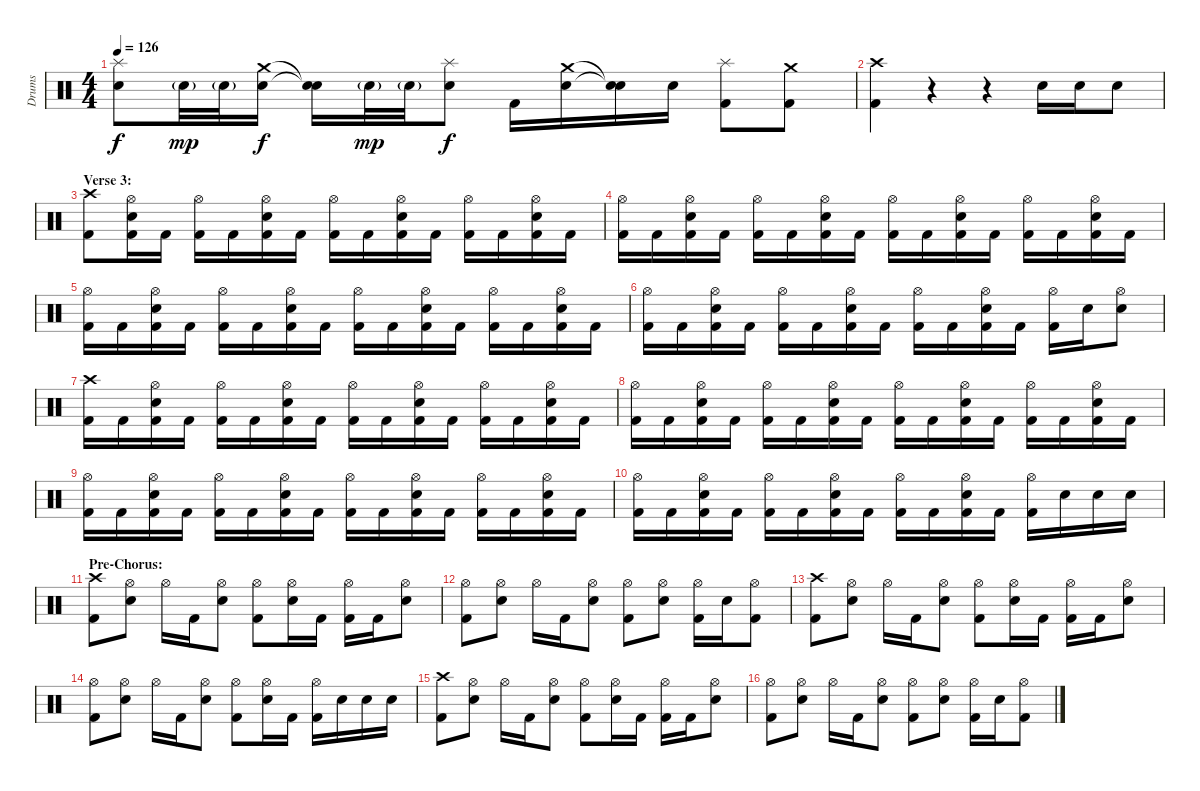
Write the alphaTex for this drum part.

\track ("Drums" "Drums") {instrument percussion}
\staff {score}
\articulation defaults
\ts (4 4)
\tempo 126
\clef neutral
\ks c
("Splash (hit)" "Snare (hit) 2").8{dy f} "Snare (hit) 2"{g}.32{dy mp} "Snare (hit) 2"{g}.32 ("Crash medium (hit)" "Snare (hit) 2").16{dy f} ("Snare (hit)"{t} "Snare (hit) 2"{t}).16 "Snare (hit) 2"{g}.32{dy mp} "Snare (hit) 2"{g}.32 ("Splash (hit)" "Snare (hit) 2").8{dy f} "Kick (hit) 2".16 ("Crash medium (hit)" "Snare (hit) 2").16 ("Snare (hit)"{t} "Snare (hit)"{t}).16 "Snare (hit) 2".16 ("Splash (hit)" "Kick (hit) 2").8 ("Crash medium (hit)" "Kick (hit) 2").8 |
("Crash high (hit)" "Kick (hit) 2").4 r.4 r.4 "Snare (hit) 2".16 "Snare (hit) 2".16 "Snare (hit) 2".8 |
\section ("" "Verse 3:")
("Crash high (hit)" "Kick (hit) 2").8 ("Hi-Hat (open)" "Snare (hit) 2" "Kick (hit) 2").16 "Kick (hit) 2".16 ("Hi-Hat (open)" "Kick (hit) 2").16 "Kick (hit) 2".16 ("Hi-Hat (open)" "Snare (hit) 2" "Kick (hit) 2").16 "Kick (hit) 2".16 ("Hi-Hat (open)" "Kick (hit) 2").16 "Kick (hit) 2".16 ("Hi-Hat (open)" "Snare (hit) 2" "Kick (hit) 2").16 "Kick (hit) 2".16 ("Hi-Hat (open)" "Kick (hit) 2").16 "Kick (hit) 2".16 ("Hi-Hat (open)" "Snare (hit) 2" "Kick (hit) 2").16 "Kick (hit) 2".16 |
("Hi-Hat (open)" "Kick (hit) 2").16 "Kick (hit) 2".16 ("Hi-Hat (open)" "Snare (hit) 2" "Kick (hit) 2").16 "Kick (hit) 2".16 ("Hi-Hat (open)" "Kick (hit) 2").16 "Kick (hit) 2".16 ("Hi-Hat (open)" "Snare (hit) 2" "Kick (hit) 2").16 "Kick (hit) 2".16 ("Hi-Hat (open)" "Kick (hit) 2").16 "Kick (hit) 2".16 ("Hi-Hat (open)" "Snare (hit) 2" "Kick (hit) 2").16 "Kick (hit) 2".16 ("Hi-Hat (open)" "Kick (hit) 2").16 "Kick (hit) 2".16 ("Hi-Hat (open)" "Snare (hit) 2" "Kick (hit) 2").16 "Kick (hit) 2".16 |
("Hi-Hat (open)" "Kick (hit) 2").16 "Kick (hit) 2".16 ("Hi-Hat (open)" "Snare (hit) 2" "Kick (hit) 2").16 "Kick (hit) 2".16 ("Hi-Hat (open)" "Kick (hit) 2").16 "Kick (hit) 2".16 ("Hi-Hat (open)" "Snare (hit) 2" "Kick (hit) 2").16 "Kick (hit) 2".16 ("Hi-Hat (open)" "Kick (hit) 2").16 "Kick (hit) 2".16 ("Hi-Hat (open)" "Snare (hit) 2" "Kick (hit) 2").16 "Kick (hit) 2".16 ("Hi-Hat (open)" "Kick (hit) 2").16 "Kick (hit) 2".16 ("Hi-Hat (open)" "Snare (hit) 2" "Kick (hit) 2").16 "Kick (hit) 2".16 |
("Hi-Hat (open)" "Kick (hit) 2").16 "Kick (hit) 2".16 ("Hi-Hat (open)" "Snare (hit) 2" "Kick (hit) 2").16 "Kick (hit) 2".16 ("Hi-Hat (open)" "Kick (hit) 2").16 "Kick (hit) 2".16 ("Hi-Hat (open)" "Snare (hit) 2" "Kick (hit) 2").16 "Kick (hit) 2".16 ("Hi-Hat (open)" "Kick (hit) 2").16 "Kick (hit) 2".16 ("Hi-Hat (open)" "Snare (hit) 2" "Kick (hit) 2").16 "Kick (hit) 2".16 ("Hi-Hat (open)" "Kick (hit) 2").16 "Snare (hit) 2".16 ("Hi-Hat (open)" "Snare (hit) 2").8 |
("Crash high (hit)" "Kick (hit) 2").16 "Kick (hit) 2".16 ("Hi-Hat (open)" "Snare (hit) 2" "Kick (hit) 2").16 "Kick (hit) 2".16 ("Hi-Hat (open)" "Kick (hit) 2").16 "Kick (hit) 2".16 ("Hi-Hat (open)" "Snare (hit) 2" "Kick (hit) 2").16 "Kick (hit) 2".16 ("Hi-Hat (open)" "Kick (hit) 2").16 "Kick (hit) 2".16 ("Hi-Hat (open)" "Snare (hit) 2" "Kick (hit) 2").16 "Kick (hit) 2".16 ("Hi-Hat (open)" "Kick (hit) 2").16 "Kick (hit) 2".16 ("Hi-Hat (open)" "Snare (hit) 2" "Kick (hit) 2").16 "Kick (hit) 2".16 |
("Hi-Hat (open)" "Kick (hit) 2").16 "Kick (hit) 2".16 ("Hi-Hat (open)" "Snare (hit) 2" "Kick (hit) 2").16 "Kick (hit) 2".16 ("Hi-Hat (open)" "Kick (hit) 2").16 "Kick (hit) 2".16 ("Hi-Hat (open)" "Snare (hit) 2" "Kick (hit) 2").16 "Kick (hit) 2".16 ("Hi-Hat (open)" "Kick (hit) 2").16 "Kick (hit) 2".16 ("Hi-Hat (open)" "Snare (hit) 2" "Kick (hit) 2").16 "Kick (hit) 2".16 ("Hi-Hat (open)" "Kick (hit) 2").16 "Kick (hit) 2".16 ("Hi-Hat (open)" "Snare (hit) 2" "Kick (hit) 2").16 "Kick (hit) 2".16 |
("Hi-Hat (open)" "Kick (hit) 2").16 "Kick (hit) 2".16 ("Hi-Hat (open)" "Snare (hit) 2" "Kick (hit) 2").16 "Kick (hit) 2".16 ("Hi-Hat (open)" "Kick (hit) 2").16 "Kick (hit) 2".16 ("Hi-Hat (open)" "Snare (hit) 2" "Kick (hit) 2").16 "Kick (hit) 2".16 ("Hi-Hat (open)" "Kick (hit) 2").16 "Kick (hit) 2".16 ("Hi-Hat (open)" "Snare (hit) 2" "Kick (hit) 2").16 "Kick (hit) 2".16 ("Hi-Hat (open)" "Kick (hit) 2").16 "Kick (hit) 2".16 ("Hi-Hat (open)" "Snare (hit) 2" "Kick (hit) 2").16 "Kick (hit) 2".16 |
("Hi-Hat (open)" "Kick (hit) 2").16 "Kick (hit) 2".16 ("Hi-Hat (open)" "Snare (hit) 2" "Kick (hit) 2").16 "Kick (hit) 2".16 ("Hi-Hat (open)" "Kick (hit) 2").16 "Kick (hit) 2".16 ("Hi-Hat (open)" "Snare (hit) 2" "Kick (hit) 2").16 "Kick (hit) 2".16 ("Hi-Hat (open)" "Kick (hit) 2").16 "Kick (hit) 2".16 ("Hi-Hat (open)" "Snare (hit) 2" "Kick (hit) 2").16 "Kick (hit) 2".16 ("Hi-Hat (open)" "Kick (hit) 2").16 "Snare (hit) 2".16 "Snare (hit) 2".16 "Snare (hit) 2".16 |
\section ("" "Pre-Chorus:")
("Crash high (hit)" "Kick (hit) 2").8 ("Hi-Hat (open)" "Snare (hit) 2").8 "Hi-Hat (open)".16 "Kick (hit) 2".16 ("Hi-Hat (open)" "Snare (hit) 2").8 ("Hi-Hat (open)" "Kick (hit) 2").8 ("Hi-Hat (open)" "Snare (hit) 2").16 "Kick (hit) 2".16 ("Hi-Hat (open)" "Kick (hit) 2").16 "Kick (hit) 2".16 ("Hi-Hat (open)" "Snare (hit) 2").8 |
("Hi-Hat (open)" "Kick (hit) 2").8 ("Hi-Hat (open)" "Snare (hit) 2").8 "Hi-Hat (open)".16 "Kick (hit) 2".16 ("Hi-Hat (open)" "Snare (hit) 2").8 ("Hi-Hat (open)" "Kick (hit) 2").8 ("Hi-Hat (open)" "Snare (hit) 2").8 ("Hi-Hat (open)" "Kick (hit) 2").16 "Snare (hit) 2".16 ("Hi-Hat (open)" "Kick (hit) 2").8 |
("Crash high (hit)" "Kick (hit) 2").8 ("Hi-Hat (open)" "Snare (hit) 2").8 "Hi-Hat (open)".16 "Kick (hit) 2".16 ("Hi-Hat (open)" "Snare (hit) 2").8 ("Hi-Hat (open)" "Kick (hit) 2").8 ("Hi-Hat (open)" "Snare (hit) 2").16 "Kick (hit) 2".16 ("Hi-Hat (open)" "Kick (hit) 2").16 "Kick (hit) 2".16 ("Hi-Hat (open)" "Snare (hit) 2").8 |
("Hi-Hat (open)" "Kick (hit) 2").8 ("Hi-Hat (open)" "Snare (hit) 2").8 "Hi-Hat (open)".16 "Kick (hit) 2".16 ("Hi-Hat (open)" "Snare (hit) 2").8 ("Hi-Hat (open)" "Kick (hit) 2").8 ("Hi-Hat (open)" "Snare (hit) 2").16 "Kick (hit) 2".16 ("Hi-Hat (open)" "Kick (hit) 2").16 "Snare (hit) 2".16 "Snare (hit) 2".16 "Snare (hit) 2".16 |
("Crash high (hit)" "Kick (hit) 2").8 ("Hi-Hat (open)" "Snare (hit) 2").8 "Hi-Hat (open)".16 "Kick (hit) 2".16 ("Hi-Hat (open)" "Snare (hit) 2").8 ("Hi-Hat (open)" "Kick (hit) 2").8 ("Hi-Hat (open)" "Snare (hit) 2").16 "Kick (hit) 2".16 ("Hi-Hat (open)" "Kick (hit) 2").16 "Kick (hit) 2".16 ("Hi-Hat (open)" "Snare (hit) 2").8 |
("Hi-Hat (open)" "Kick (hit) 2").8 ("Hi-Hat (open)" "Snare (hit) 2").8 "Hi-Hat (open)".16 "Kick (hit) 2".16 ("Hi-Hat (open)" "Snare (hit) 2").8 ("Hi-Hat (open)" "Kick (hit) 2").8 ("Hi-Hat (open)" "Snare (hit) 2").8 ("Hi-Hat (open)" "Kick (hit) 2").16 "Snare (hit) 2".16 ("Hi-Hat (open)" "Kick (hit) 2").8
